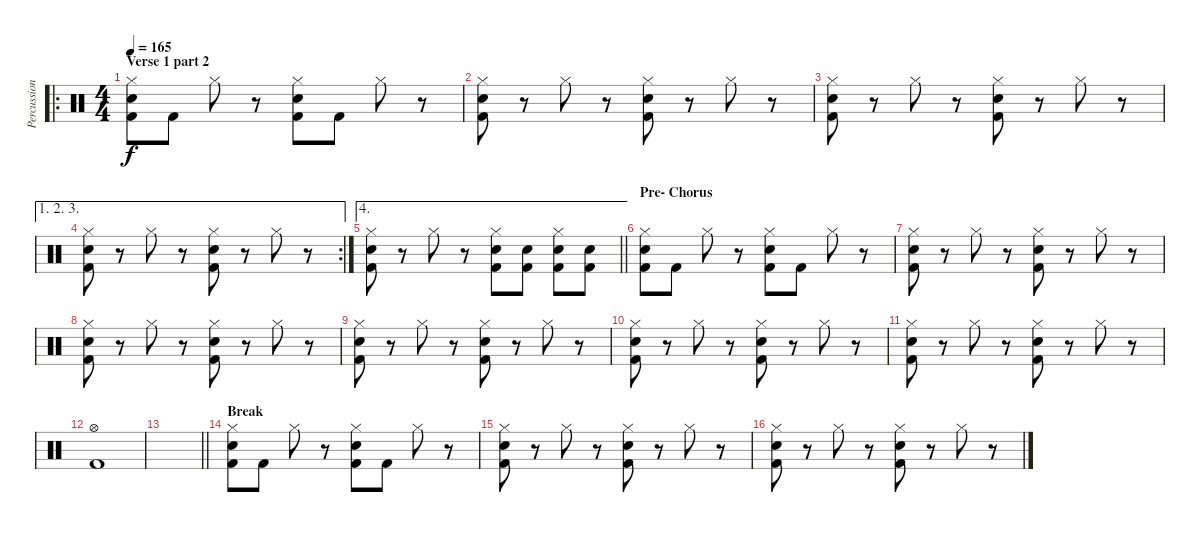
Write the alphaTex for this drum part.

\track ("Percussion" "Percussion") {instrument percussion}
\staff {score}
\articulation defaults
\ro
\ts (4 4)
\section ("" "Verse 1 part 2")
\tempo 165
\clef neutral
\ks c
("Snare (hit) 2" "Kick (hit) 2" "Hi-Hat (closed)").8{dy f volume 16} "Kick (hit) 2".8 "Hi-Hat (closed)".8 r.8 ("Snare (hit) 2" "Kick (hit) 2" "Hi-Hat (closed)").8 "Kick (hit) 2".8 "Hi-Hat (closed)".8 r.8 |
("Snare (hit) 2" "Kick (hit) 2" "Hi-Hat (closed)").8 r.8 "Hi-Hat (closed)".8 r.8 ("Snare (hit) 2" "Kick (hit) 2" "Hi-Hat (closed)").8 r.8 "Hi-Hat (closed)".8 r.8 |
("Snare (hit) 2" "Kick (hit) 2" "Hi-Hat (closed)").8 r.8 "Hi-Hat (closed)".8 r.8 ("Snare (hit) 2" "Kick (hit) 2" "Hi-Hat (closed)").8 r.8 "Hi-Hat (closed)".8 r.8 |
\ae (1 2 3)
\rc 2
("Snare (hit) 2" "Kick (hit) 2" "Hi-Hat (closed)").8 r.8 "Hi-Hat (closed)".8 r.8 ("Snare (hit) 2" "Kick (hit) 2" "Hi-Hat (closed)").8 r.8 "Hi-Hat (closed)".8 r.8 |
\ae 4
\barLineRight lightlight
("Snare (hit) 2" "Kick (hit) 2" "Hi-Hat (closed)").8 r.8 "Hi-Hat (closed)".8 r.8 ("Snare (hit) 2" "Kick (hit) 2" "Hi-Hat (closed)").8 ("Snare (hit) 2" "Kick (hit) 2").8 ("Snare (hit) 2" "Kick (hit) 2" "Hi-Hat (closed)").8 ("Snare (hit) 2" "Kick (hit) 2").8 |
\section ("" "Pre- Chorus")
("Snare (hit) 2" "Kick (hit) 2" "Hi-Hat (closed)").8{volume 16} "Kick (hit) 2".8 "Hi-Hat (closed)".8 r.8 ("Snare (hit) 2" "Kick (hit) 2" "Hi-Hat (closed)").8 "Kick (hit) 2".8 "Hi-Hat (closed)".8 r.8 |
("Snare (hit) 2" "Kick (hit) 2" "Hi-Hat (closed)").8 r.8 "Hi-Hat (closed)".8 r.8 ("Snare (hit) 2" "Kick (hit) 2" "Hi-Hat (closed)").8 r.8 "Hi-Hat (closed)".8 r.8 |
("Snare (hit) 2" "Kick (hit) 2" "Hi-Hat (closed)").8 r.8 "Hi-Hat (closed)".8 r.8 ("Snare (hit) 2" "Kick (hit) 2" "Hi-Hat (closed)").8 r.8 "Hi-Hat (closed)".8 r.8 |
("Snare (hit) 2" "Kick (hit) 2" "Hi-Hat (closed)").8 r.8 "Hi-Hat (closed)".8 r.8 ("Snare (hit) 2" "Kick (hit) 2" "Hi-Hat (closed)").8 r.8 "Hi-Hat (closed)".8 r.8 |
("Snare (hit) 2" "Kick (hit) 2" "Hi-Hat (closed)").8 r.8 "Hi-Hat (closed)".8 r.8 ("Snare (hit) 2" "Kick (hit) 2" "Hi-Hat (closed)").8 r.8 "Hi-Hat (closed)".8 r.8 |
("Snare (hit) 2" "Kick (hit) 2" "Hi-Hat (closed)").8 r.8 "Hi-Hat (closed)".8 r.8 ("Snare (hit) 2" "Kick (hit) 2" "Hi-Hat (closed)").8 r.8 "Hi-Hat (closed)".8 r.8 |
("Hi-Hat (open)" "Kick (hit) 2").1 |
\barLineRight lightlight
|
\section ("" "Break")
("Snare (hit) 2" "Kick (hit) 2" "Hi-Hat (closed)").8{volume 16} "Kick (hit) 2".8 "Hi-Hat (closed)".8 r.8 ("Snare (hit) 2" "Kick (hit) 2" "Hi-Hat (closed)").8 "Kick (hit) 2".8 "Hi-Hat (closed)".8 r.8 |
("Snare (hit) 2" "Kick (hit) 2" "Hi-Hat (closed)").8 r.8 "Hi-Hat (closed)".8 r.8 ("Snare (hit) 2" "Kick (hit) 2" "Hi-Hat (closed)").8 r.8 "Hi-Hat (closed)".8 r.8 |
("Snare (hit) 2" "Kick (hit) 2" "Hi-Hat (closed)").8 r.8 "Hi-Hat (closed)".8 r.8 ("Snare (hit) 2" "Kick (hit) 2" "Hi-Hat (closed)").8 r.8 "Hi-Hat (closed)".8 r.8
